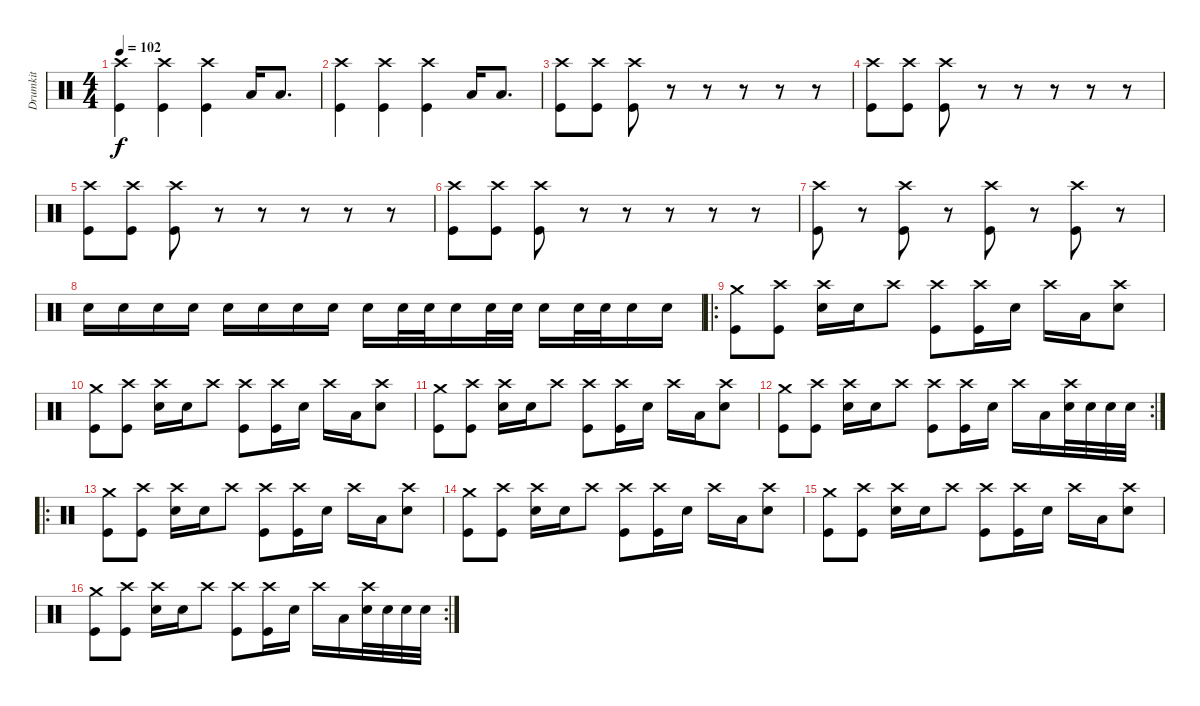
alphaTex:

\track ("Drumkit" "Drumkit") {instrument percussion}
\staff {score}
\articulation defaults
\ts (4 4)
\tempo 102
\clef neutral
\ks c
("Kick (hit)" "Crash high (hit)").4{dy f} ("Kick (hit)" "Crash high (hit)").4 ("Kick (hit)" "Crash high (hit)").4 "Low Tom (hit)".16 "Low Tom (hit)".8{d} |
("Kick (hit)" "Crash high (hit)").4 ("Kick (hit)" "Crash high (hit)").4 ("Kick (hit)" "Crash high (hit)").4 "Low Tom (hit)".16 "Low Tom (hit)".8{d} |
("Kick (hit)" "Crash high (hit)").8 ("Kick (hit)" "Crash high (hit)").8 ("Kick (hit)" "Crash high (hit)").8 r.8 r.8 r.8 r.8 r.8 |
("Kick (hit)" "Crash high (hit)").8 ("Kick (hit)" "Crash high (hit)").8 ("Kick (hit)" "Crash high (hit)").8 r.8 r.8 r.8 r.8 r.8 |
("Kick (hit)" "Crash high (hit)").8 ("Kick (hit)" "Crash high (hit)").8 ("Kick (hit)" "Crash high (hit)").8 r.8 r.8 r.8 r.8 r.8 |
("Kick (hit)" "Crash high (hit)").8 ("Kick (hit)" "Crash high (hit)").8 ("Kick (hit)" "Crash high (hit)").8 r.8 r.8 r.8 r.8 r.8 |
("Crash high (hit)" "Kick (hit)").8 r.8 ("Crash high (hit)" "Kick (hit)").8 r.8 ("Crash high (hit)" "Kick (hit)").8 r.8 ("Crash high (hit)" "Kick (hit)").8 r.8 |
"Snare (hit) 2".16 "Snare (hit) 2".16 "Snare (hit) 2".16 "Snare (hit) 2".16 "Snare (hit) 2".16 "Snare (hit) 2".16 "Snare (hit) 2".16 "Snare (hit) 2".16 "Snare (hit) 2".16 "Snare (hit) 2".32 "Snare (hit) 2".32 "Snare (hit) 2".16 "Snare (hit) 2".32 "Snare (hit) 2".32 "Snare (hit) 2".16 "Snare (hit) 2".32 "Snare (hit) 2".32 "Snare (hit) 2".16 "Snare (hit) 2".16 |
\ro
("Kick (hit)" "Crash medium (hit)").8 ("Kick (hit)" "Crash high (hit)").8 ("Snare (hit) 2" "Crash high (hit)").16 "Snare (hit) 2".16 "Crash high (hit)".8 ("Kick (hit)" "Crash high (hit)").8 ("Kick (hit)" "Crash high (hit)").16 "Snare (hit) 2".16 "Crash high (hit)".16 "Low Floor Tom (hit)".16 ("Crash high (hit)" "Snare (hit) 2").8 |
("Kick (hit)" "Crash medium (hit)").8 ("Kick (hit)" "Crash high (hit)").8 ("Crash high (hit)" "Snare (hit) 2").16 "Snare (hit) 2".16 "Crash high (hit)".8 ("Crash high (hit)" "Kick (hit)").8 ("Crash high (hit)" "Kick (hit)").16 "Snare (hit) 2".16 "Crash high (hit)".16 "Low Floor Tom (hit)".16 ("Crash high (hit)" "Snare (hit) 2").8 |
("Kick (hit)" "Crash medium (hit)").8 ("Kick (hit)" "Crash high (hit)").8 ("Crash high (hit)" "Snare (hit) 2").16 "Snare (hit) 2".16 "Crash high (hit)".8 ("Crash high (hit)" "Kick (hit)").8 ("Crash high (hit)" "Kick (hit)").16 "Snare (hit) 2".16 "Crash high (hit)".16 "Low Floor Tom (hit)".16 ("Crash high (hit)" "Snare (hit) 2").8 |
\rc 2
("Kick (hit)" "Crash medium (hit)").8 ("Kick (hit)" "Crash high (hit)").8 ("Crash high (hit)" "Snare (hit) 2").16 "Snare (hit) 2".16 "Crash high (hit)".8 ("Crash high (hit)" "Kick (hit)").8 ("Crash high (hit)" "Kick (hit)").16 "Snare (hit) 2".16 "Crash high (hit)".16 "Low Floor Tom (hit)".16 ("Crash high (hit)" "Snare (hit) 2").32 "Snare (hit) 2".32 "Snare (hit) 2".32 "Snare (hit) 2".32 |
\ro
("Kick (hit)" "Crash medium (hit)").8 ("Kick (hit)" "Crash high (hit)").8 ("Snare (hit) 2" "Crash high (hit)").16 "Snare (hit) 2".16 "Crash high (hit)".8 ("Kick (hit)" "Crash high (hit)").8 ("Kick (hit)" "Crash high (hit)").16 "Snare (hit) 2".16 "Crash high (hit)".16 "Low Floor Tom (hit)".16 ("Crash high (hit)" "Snare (hit) 2").8 |
("Kick (hit)" "Crash medium (hit)").8 ("Kick (hit)" "Crash high (hit)").8 ("Crash high (hit)" "Snare (hit) 2").16 "Snare (hit) 2".16 "Crash high (hit)".8 ("Crash high (hit)" "Kick (hit)").8 ("Crash high (hit)" "Kick (hit)").16 "Snare (hit) 2".16 "Crash high (hit)".16 "Low Floor Tom (hit)".16 ("Crash high (hit)" "Snare (hit) 2").8 |
("Kick (hit)" "Crash medium (hit)").8 ("Kick (hit)" "Crash high (hit)").8 ("Crash high (hit)" "Snare (hit) 2").16 "Snare (hit) 2".16 "Crash high (hit)".8 ("Crash high (hit)" "Kick (hit)").8 ("Crash high (hit)" "Kick (hit)").16 "Snare (hit) 2".16 "Crash high (hit)".16 "Low Floor Tom (hit)".16 ("Crash high (hit)" "Snare (hit) 2").8 |
\rc 2
("Kick (hit)" "Crash medium (hit)").8 ("Kick (hit)" "Crash high (hit)").8 ("Crash high (hit)" "Snare (hit) 2").16 "Snare (hit) 2".16 "Crash high (hit)".8 ("Crash high (hit)" "Kick (hit)").8 ("Crash high (hit)" "Kick (hit)").16 "Snare (hit) 2".16 "Crash high (hit)".16 "Low Floor Tom (hit)".16 ("Crash high (hit)" "Snare (hit) 2").32 "Snare (hit) 2".32 "Snare (hit) 2".32 "Snare (hit) 2".32
